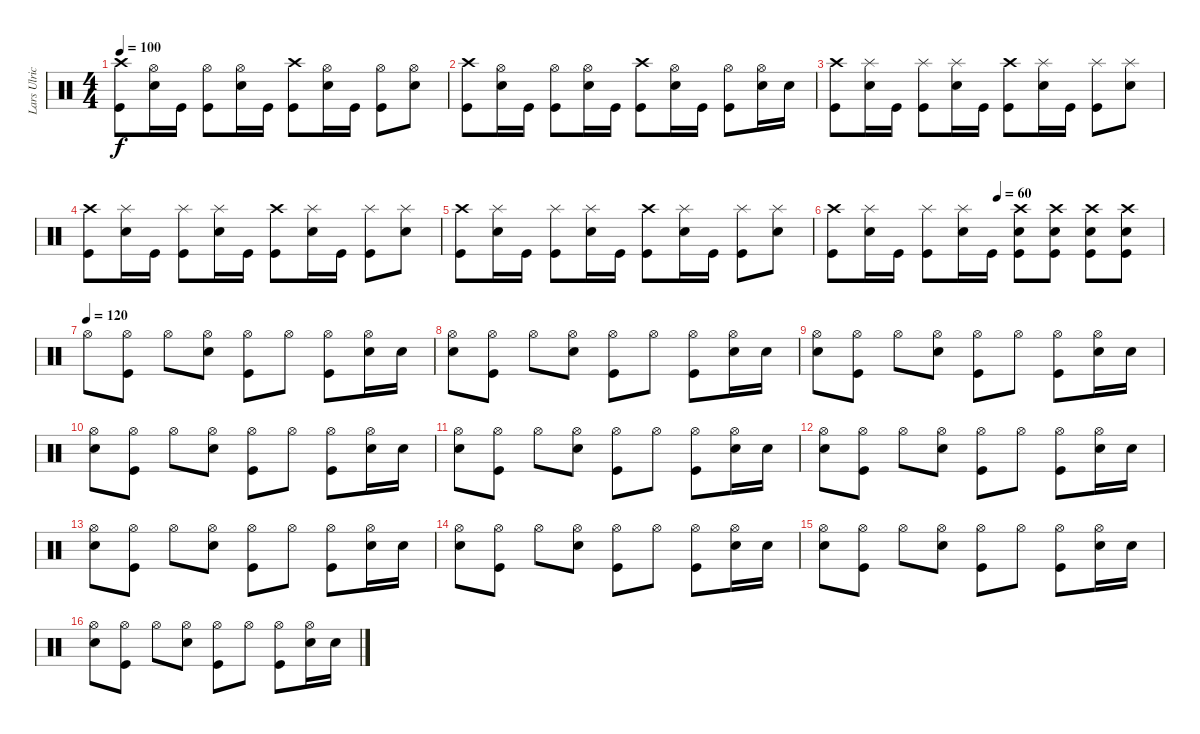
\track ("Lars Ulrich Drums" "Lars Ulric") {instrument percussion}
\staff {score}
\articulation defaults
\ts (4 4)
\tempo 100
\clef neutral
\ks c
("Crash high (hit)" "Kick (hit)").8{dy f} ("Hi-Hat (open)" "Electric Snare (hit)").16 "Kick (hit)".16 ("Hi-Hat (open)" "Kick (hit)").8 ("Hi-Hat (open)" "Electric Snare (hit)").16 "Kick (hit)".16 ("Crash high (hit)" "Kick (hit)").8 ("Hi-Hat (open)" "Electric Snare (hit)").16 "Kick (hit)".16 ("Hi-Hat (open)" "Kick (hit)").8 ("Hi-Hat (open)" "Electric Snare (hit)").8 |
("Crash high (hit)" "Kick (hit)").8 ("Hi-Hat (open)" "Electric Snare (hit)").16 "Kick (hit)".16 ("Hi-Hat (open)" "Kick (hit)").8 ("Hi-Hat (open)" "Electric Snare (hit)").16 "Kick (hit)".16 ("Crash high (hit)" "Kick (hit)").8 ("Hi-Hat (open)" "Electric Snare (hit)").16 "Kick (hit)".16 ("Hi-Hat (open)" "Kick (hit)").8 ("Hi-Hat (open)" "Electric Snare (hit)").16 "Electric Snare (hit)".16 |
("Crash high (hit)" "Kick (hit)").8 ("Splash (hit)" "Electric Snare (hit)").16 "Kick (hit)".16 ("Splash (hit)" "Kick (hit)").8 ("Splash (hit)" "Electric Snare (hit)").16 "Kick (hit)".16 ("Crash high (hit)" "Kick (hit)").8 ("Splash (hit)" "Electric Snare (hit)").16 "Kick (hit)".16 ("Splash (hit)" "Kick (hit)").8 ("Splash (hit)" "Electric Snare (hit)").8 |
("Crash high (hit)" "Kick (hit)").8 ("Splash (hit)" "Electric Snare (hit)").16 "Kick (hit)".16 ("Splash (hit)" "Kick (hit)").8 ("Splash (hit)" "Electric Snare (hit)").16 "Kick (hit)".16 ("Crash high (hit)" "Kick (hit)").8 ("Splash (hit)" "Electric Snare (hit)").16 "Kick (hit)".16 ("Splash (hit)" "Kick (hit)").8 ("Splash (hit)" "Electric Snare (hit)").8 |
("Crash high (hit)" "Kick (hit)").8 ("Splash (hit)" "Electric Snare (hit)").16 "Kick (hit)".16 ("Splash (hit)" "Kick (hit)").8 ("Splash (hit)" "Electric Snare (hit)").16 "Kick (hit)".16 ("Crash high (hit)" "Kick (hit)").8 ("Splash (hit)" "Electric Snare (hit)").16 "Kick (hit)".16 ("Splash (hit)" "Kick (hit)").8 ("Splash (hit)" "Electric Snare (hit)").8 |
\tempo (60 0.5)
("Crash high (hit)" "Kick (hit)").8 ("Splash (hit)" "Electric Snare (hit)").16 "Kick (hit)".16 ("Splash (hit)" "Kick (hit)").8 ("Splash (hit)" "Electric Snare (hit)").16 "Kick (hit)".16 ("Crash high (hit)" "Electric Snare (hit)" "Kick (hit)").8 ("Crash high (hit)" "Electric Snare (hit)" "Kick (hit)").8 ("Crash high (hit)" "Electric Snare (hit)" "Kick (hit)").8 ("Crash high (hit)" "Electric Snare (hit)" "Kick (hit)").8 |
\tempo (120)
"Hi-Hat (open)".8 ("Hi-Hat (open)" "Kick (hit)").8 "Hi-Hat (open)".8 ("Hi-Hat (open)" "Electric Snare (hit)").8 ("Hi-Hat (open)" "Kick (hit)").8 "Hi-Hat (open)".8 ("Hi-Hat (open)" "Kick (hit)").8 ("Hi-Hat (open)" "Electric Snare (hit)").16 "Electric Snare (hit)".16 |
("Hi-Hat (open)" "Electric Snare (hit)").8 ("Hi-Hat (open)" "Kick (hit)").8 "Hi-Hat (open)".8 ("Hi-Hat (open)" "Electric Snare (hit)").8 ("Hi-Hat (open)" "Kick (hit)").8 "Hi-Hat (open)".8 ("Hi-Hat (open)" "Kick (hit)").8 ("Hi-Hat (open)" "Electric Snare (hit)").16 "Electric Snare (hit)".16 |
("Hi-Hat (open)" "Electric Snare (hit)").8 ("Hi-Hat (open)" "Kick (hit)").8 "Hi-Hat (open)".8 ("Hi-Hat (open)" "Electric Snare (hit)").8 ("Hi-Hat (open)" "Kick (hit)").8 "Hi-Hat (open)".8 ("Hi-Hat (open)" "Kick (hit)").8 ("Hi-Hat (open)" "Electric Snare (hit)").16 "Electric Snare (hit)".16 |
("Hi-Hat (open)" "Electric Snare (hit)").8 ("Hi-Hat (open)" "Kick (hit)").8 "Hi-Hat (open)".8 ("Hi-Hat (open)" "Electric Snare (hit)").8 ("Hi-Hat (open)" "Kick (hit)").8 "Hi-Hat (open)".8 ("Hi-Hat (open)" "Kick (hit)").8 ("Hi-Hat (open)" "Electric Snare (hit)").16 "Electric Snare (hit)".16 |
("Hi-Hat (open)" "Electric Snare (hit)").8 ("Hi-Hat (open)" "Kick (hit)").8 "Hi-Hat (open)".8 ("Hi-Hat (open)" "Electric Snare (hit)").8 ("Hi-Hat (open)" "Kick (hit)").8 "Hi-Hat (open)".8 ("Hi-Hat (open)" "Kick (hit)").8 ("Hi-Hat (open)" "Electric Snare (hit)").16 "Electric Snare (hit)".16 |
("Hi-Hat (open)" "Electric Snare (hit)").8 ("Hi-Hat (open)" "Kick (hit)").8 "Hi-Hat (open)".8 ("Hi-Hat (open)" "Electric Snare (hit)").8 ("Hi-Hat (open)" "Kick (hit)").8 "Hi-Hat (open)".8 ("Hi-Hat (open)" "Kick (hit)").8 ("Hi-Hat (open)" "Electric Snare (hit)").16 "Electric Snare (hit)".16 |
("Hi-Hat (open)" "Electric Snare (hit)").8 ("Hi-Hat (open)" "Kick (hit)").8 "Hi-Hat (open)".8 ("Hi-Hat (open)" "Electric Snare (hit)").8 ("Hi-Hat (open)" "Kick (hit)").8 "Hi-Hat (open)".8 ("Hi-Hat (open)" "Kick (hit)").8 ("Hi-Hat (open)" "Electric Snare (hit)").16 "Electric Snare (hit)".16 |
("Hi-Hat (open)" "Electric Snare (hit)").8 ("Hi-Hat (open)" "Kick (hit)").8 "Hi-Hat (open)".8 ("Hi-Hat (open)" "Electric Snare (hit)").8 ("Hi-Hat (open)" "Kick (hit)").8 "Hi-Hat (open)".8 ("Hi-Hat (open)" "Kick (hit)").8 ("Hi-Hat (open)" "Electric Snare (hit)").16 "Electric Snare (hit)".16 |
("Hi-Hat (open)" "Electric Snare (hit)").8 ("Hi-Hat (open)" "Kick (hit)").8 "Hi-Hat (open)".8 ("Hi-Hat (open)" "Electric Snare (hit)").8 ("Hi-Hat (open)" "Kick (hit)").8 "Hi-Hat (open)".8 ("Hi-Hat (open)" "Kick (hit)").8 ("Hi-Hat (open)" "Electric Snare (hit)").16 "Electric Snare (hit)".16 |
("Hi-Hat (open)" "Electric Snare (hit)").8 ("Hi-Hat (open)" "Kick (hit)").8 "Hi-Hat (open)".8 ("Hi-Hat (open)" "Electric Snare (hit)").8 ("Hi-Hat (open)" "Kick (hit)").8 "Hi-Hat (open)".8 ("Hi-Hat (open)" "Kick (hit)").8 ("Hi-Hat (open)" "Electric Snare (hit)").16 "Electric Snare (hit)".16
